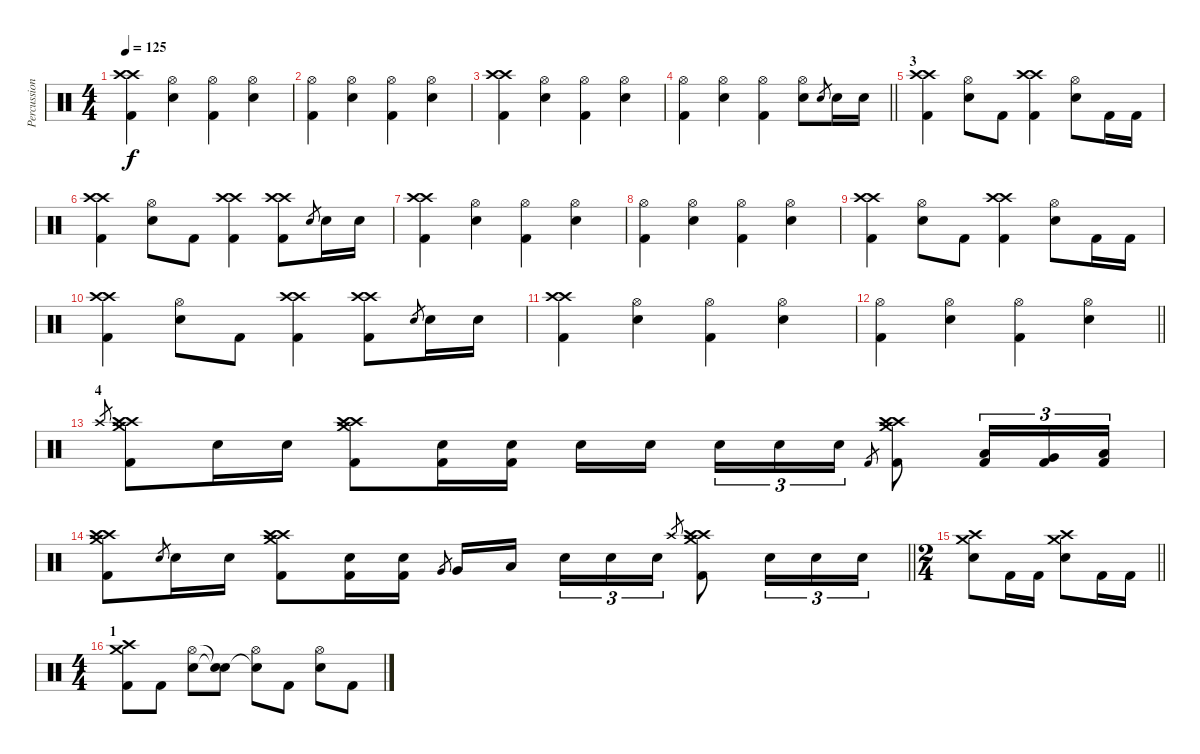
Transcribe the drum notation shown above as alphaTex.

\track ("Percussion" "Percussion") {instrument percussion}
\staff {score}
\articulation defaults
\ts (4 4)
\tempo 125
\clef neutral
\ks c
("Crash high (hit)" "Crash high (hit)" "Kick (hit) 2").4{dy f} ("Hi-Hat (open)" "Snare (hit) 2").4 ("Hi-Hat (open)" "Kick (hit) 2").4 ("Hi-Hat (open)" "Snare (hit) 2").4 |
("Hi-Hat (open)" "Kick (hit) 2").4 ("Hi-Hat (open)" "Snare (hit) 2").4 ("Hi-Hat (open)" "Kick (hit) 2").4 ("Hi-Hat (open)" "Snare (hit) 2").4 |
("Crash high (hit)" "Crash high (hit)" "Kick (hit) 2").4 ("Hi-Hat (open)" "Snare (hit) 2").4 ("Hi-Hat (open)" "Kick (hit) 2").4 ("Hi-Hat (open)" "Snare (hit) 2").4 |
\barLineRight lightlight
("Hi-Hat (open)" "Kick (hit) 2").4 ("Hi-Hat (open)" "Snare (hit) 2").4 ("Hi-Hat (open)" "Kick (hit) 2").4 ("Hi-Hat (open)" "Snare (hit) 2").8 "Snare (hit) 2".8{gr} "Snare (hit) 2".16 "Snare (hit) 2".16 |
\section ("" "3")
("Crash high (hit)" "Crash high (hit)" "Kick (hit) 2").4 ("Hi-Hat (open)" "Snare (hit) 2").8 "Kick (hit) 2".8 ("Crash high (hit)" "Crash high (hit)" "Kick (hit) 2").4 ("Hi-Hat (open)" "Snare (hit) 2").8 "Kick (hit) 2".16 "Kick (hit) 2".16 |
("Crash high (hit)" "Crash high (hit)" "Kick (hit) 2").4 ("Hi-Hat (open)" "Snare (hit) 2").8 "Kick (hit) 2".8 ("Crash high (hit)" "Crash high (hit)" "Kick (hit) 2").4 ("Crash high (hit)" "Crash high (hit)" "Kick (hit) 2").8 "Snare (hit) 2".8{gr} "Snare (hit) 2".16 "Snare (hit) 2".16 |
("Crash high (hit)" "Crash high (hit)" "Kick (hit) 2").4 ("Hi-Hat (open)" "Snare (hit) 2").4 ("Hi-Hat (open)" "Kick (hit) 2").4 ("Hi-Hat (open)" "Snare (hit) 2").4 |
("Hi-Hat (open)" "Kick (hit) 2").4 ("Hi-Hat (open)" "Snare (hit) 2").4 ("Hi-Hat (open)" "Kick (hit) 2").4 ("Hi-Hat (open)" "Snare (hit) 2").4 |
("Crash high (hit)" "Crash high (hit)" "Kick (hit) 2").4 ("Hi-Hat (open)" "Snare (hit) 2").8 "Kick (hit) 2".8 ("Crash high (hit)" "Crash high (hit)" "Kick (hit) 2").4 ("Hi-Hat (open)" "Snare (hit) 2").8 "Kick (hit) 2".16 "Kick (hit) 2".16 |
("Crash high (hit)" "Crash high (hit)" "Kick (hit) 2").4 ("Hi-Hat (open)" "Snare (hit) 2").8 "Kick (hit) 2".8 ("Crash high (hit)" "Crash high (hit)" "Kick (hit) 2").4 ("Crash high (hit)" "Crash high (hit)" "Kick (hit) 2").8 "Snare (hit) 2".8{gr} "Snare (hit) 2".16 "Snare (hit) 2".16 |
("Crash high (hit)" "Crash high (hit)" "Kick (hit) 2").4 ("Hi-Hat (open)" "Snare (hit) 2").4 ("Hi-Hat (open)" "Kick (hit) 2").4 ("Hi-Hat (open)" "Snare (hit) 2").4 |
\barLineRight lightlight
("Hi-Hat (open)" "Kick (hit) 2").4 ("Hi-Hat (open)" "Snare (hit) 2").4 ("Hi-Hat (open)" "Kick (hit) 2").4 ("Hi-Hat (open)" "Snare (hit) 2").4 |
\section ("" "4")
"Crash high (hit)".8{gr} ("Crash high (hit)" "Crash medium (hit)" "Crash high (hit)" "Kick (hit) 2").8 "Snare (hit) 2".16 "Snare (hit) 2".16 ("Crash high (hit)" "Crash medium (hit)" "Crash high (hit)" "Kick (hit) 2").8 ("Snare (hit) 2" "Kick (hit) 2").16 ("Snare (hit) 2" "Kick (hit) 2").16 "Snare (hit) 2".16 "Snare (hit) 2".16{beam splitsecondary} "Snare (hit) 2".16{tu (3 2)} "Snare (hit) 2".16{tu (3 2)} "Snare (hit) 2".16{tu (3 2)} "Kick (hit) 2".8{gr} ("Crash high (hit)" "Crash medium (hit)" "Crash high (hit)" "Kick (hit) 2").8 ("Low Tom (hit)" "Kick (hit) 2").16{tu (3 2)} ("Very Low Tom (hit)" "Kick (hit) 2").16{tu (3 2)} ("Low Floor Tom (hit)" "Kick (hit) 2").16{tu (3 2)} |
\barLineRight lightlight
("Crash high (hit)" "Crash medium (hit)" "Crash high (hit)" "Kick (hit) 2").8 "Snare (hit) 2".8{gr} "Snare (hit) 2".16 "Snare (hit) 2".16 ("Crash high (hit)" "Crash medium (hit)" "Crash high (hit)" "Kick (hit) 2").8 ("Snare (hit) 2" "Kick (hit) 2").16 ("Snare (hit) 2" "Kick (hit) 2").16 "Very Low Tom (hit)".8{gr} "Very Low Tom (hit)".16 "Low Floor Tom (hit)".16{beam splitsecondary} "Snare (hit) 2".16{tu (3 2)} "Snare (hit) 2".16{tu (3 2)} "Snare (hit) 2".16{tu (3 2)} "Crash high (hit)".8{gr} ("Crash high (hit)" "Crash medium (hit)" "Crash high (hit)" "Kick (hit) 2").8 "Snare (hit) 2".16{tu (3 2)} "Snare (hit) 2".16{tu (3 2)} "Snare (hit) 2".16{tu (3 2)} |
\ts (2 4)
\barLineRight lightlight
("Crash medium (hit)" "Crash high (hit)" "Snare (hit) 2").8 "Kick (hit) 2".16 "Kick (hit) 2".16 ("Crash high (hit)" "Crash medium (hit)" "Snare (hit) 2").8 "Kick (hit) 2".16 "Kick (hit) 2".16 |
\ts (4 4)
\section ("" "1")
("Crash medium (hit)" "Crash high (hit)" "Kick (hit) 2").8 "Kick (hit) 2".8 ("Hi-Hat (open)" "Snare (hit) 2").8 ("Snare (hit)"{t} "Snare (hit)"{t}).8 ("Hi-Hat (open)" "Snare (hit)"{t}).8 "Kick (hit) 2".8 ("Hi-Hat (open)" "Snare (hit) 2").8 "Kick (hit) 2".8
